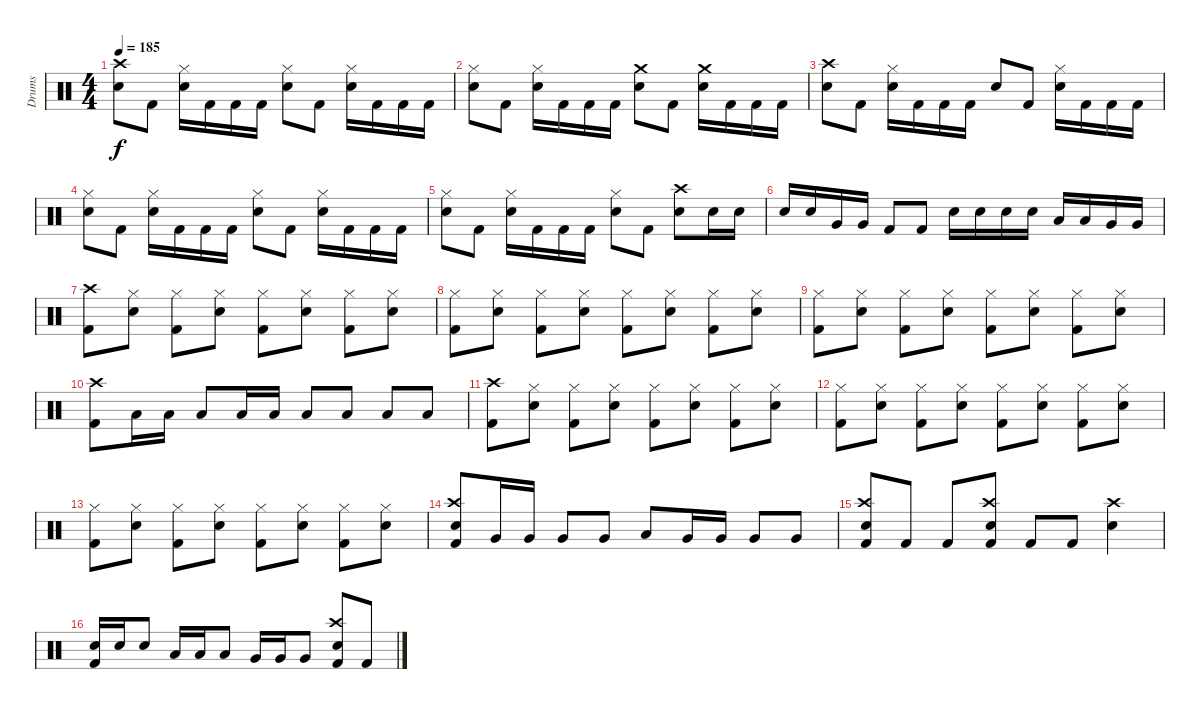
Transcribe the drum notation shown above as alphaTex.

\track ("Drums" "Drums") {instrument percussion}
\staff {score}
\articulation defaults
\ts (4 4)
\tempo 185
\clef neutral
\ks c
("Snare (hit) 2" "Crash high (hit)").8{dy f} "Kick (hit) 2".8 ("Snare (hit) 2" "Hi-Hat (closed)").16 "Kick (hit) 2".16 "Kick (hit) 2".16 "Kick (hit) 2".16 ("Snare (hit) 2" "Hi-Hat (closed)").8 "Kick (hit) 2".8 ("Snare (hit) 2" "Hi-Hat (closed)").16 "Kick (hit) 2".16 "Kick (hit) 2".16 "Kick (hit) 2".16 |
("Snare (hit) 2" "Hi-Hat (closed)").8 "Kick (hit) 2".8 ("Snare (hit) 2" "Hi-Hat (closed)").16 "Kick (hit) 2".16 "Kick (hit) 2".16 "Kick (hit) 2".16 ("Snare (hit) 2" "Crash medium (hit)").8 "Kick (hit) 2".8 ("Snare (hit) 2" "Crash medium (hit)").16 "Kick (hit) 2".16 "Kick (hit) 2".16 "Kick (hit) 2".16 |
("Snare (hit) 2" "Crash high (hit)").8 "Kick (hit) 2".8 ("Snare (hit) 2" "Hi-Hat (closed)").16 "Kick (hit) 2".16 "Kick (hit) 2".16 "Kick (hit) 2".16 "Snare (hit) 2".8 "Kick (hit) 2".8 ("Snare (hit) 2" "Hi-Hat (closed)").16 "Kick (hit) 2".16 "Kick (hit) 2".16 "Kick (hit) 2".16 |
("Snare (hit) 2" "Hi-Hat (closed)").8 "Kick (hit) 2".8 ("Snare (hit) 2" "Hi-Hat (closed)").16 "Kick (hit) 2".16 "Kick (hit) 2".16 "Kick (hit) 2".16 ("Snare (hit) 2" "Hi-Hat (closed)").8 "Kick (hit) 2".8 ("Snare (hit) 2" "Hi-Hat (closed)").16 "Kick (hit) 2".16 "Kick (hit) 2".16 "Kick (hit) 2".16 |
("Snare (hit) 2" "Hi-Hat (closed)").8 "Kick (hit) 2".8 ("Snare (hit) 2" "Hi-Hat (closed)").16 "Kick (hit) 2".16 "Kick (hit) 2".16 "Kick (hit) 2".16 ("Snare (hit) 2" "Hi-Hat (closed)").8 "Kick (hit) 2".8 ("Snare (hit) 2" "Crash high (hit)").8 "Snare (hit) 2".16 "Snare (hit) 2".16 |
"Snare (hit) 2".16 "Snare (hit) 2".16 "Very Low Tom (hit)".16 "Very Low Tom (hit)".16 "Kick (hit) 2".8 "Kick (hit) 2".8 "Snare (hit) 2".16 "Snare (hit) 2".16 "Snare (hit) 2".16 "Snare (hit) 2".16 "Low Tom (hit)".16 "Low Tom (hit)".16 "Very Low Tom (hit)".16 "Very Low Tom (hit)".16 |
("Kick (hit) 2" "Crash high (hit)").8 ("Snare (hit) 2" "Hi-Hat (closed)").8 ("Kick (hit) 2" "Hi-Hat (closed)").8 ("Snare (hit) 2" "Hi-Hat (closed)").8 ("Kick (hit) 2" "Hi-Hat (closed)").8 ("Snare (hit) 2" "Hi-Hat (closed)").8 ("Kick (hit) 2" "Hi-Hat (closed)").8 ("Snare (hit) 2" "Hi-Hat (closed)").8 |
("Kick (hit) 2" "Hi-Hat (closed)").8 ("Snare (hit) 2" "Hi-Hat (closed)").8 ("Kick (hit) 2" "Hi-Hat (closed)").8 ("Snare (hit) 2" "Hi-Hat (closed)").8 ("Kick (hit) 2" "Hi-Hat (closed)").8 ("Snare (hit) 2" "Hi-Hat (closed)").8 ("Kick (hit) 2" "Hi-Hat (closed)").8 ("Snare (hit) 2" "Hi-Hat (closed)").8 |
("Kick (hit) 2" "Hi-Hat (closed)").8 ("Snare (hit) 2" "Hi-Hat (closed)").8 ("Kick (hit) 2" "Hi-Hat (closed)").8 ("Snare (hit) 2" "Hi-Hat (closed)").8 ("Kick (hit) 2" "Hi-Hat (closed)").8 ("Snare (hit) 2" "Hi-Hat (closed)").8 ("Kick (hit) 2" "Hi-Hat (closed)").8 ("Snare (hit) 2" "Hi-Hat (closed)").8 |
("Kick (hit) 2" "Crash high (hit)").8 "Low Tom (hit)".16 "Low Tom (hit)".16 "Low Tom (hit)".8 "Low Tom (hit)".16 "Low Tom (hit)".16 "Low Tom (hit)".8 "Low Tom (hit)".8 "Low Tom (hit)".8 "Low Tom (hit)".8 |
("Kick (hit) 2" "Crash high (hit)").8 ("Snare (hit) 2" "Hi-Hat (closed)").8 ("Kick (hit) 2" "Hi-Hat (closed)").8 ("Snare (hit) 2" "Hi-Hat (closed)").8 ("Kick (hit) 2" "Hi-Hat (closed)").8 ("Snare (hit) 2" "Hi-Hat (closed)").8 ("Kick (hit) 2" "Hi-Hat (closed)").8 ("Snare (hit) 2" "Hi-Hat (closed)").8 |
("Kick (hit) 2" "Hi-Hat (closed)").8 ("Snare (hit) 2" "Hi-Hat (closed)").8 ("Kick (hit) 2" "Hi-Hat (closed)").8 ("Snare (hit) 2" "Hi-Hat (closed)").8 ("Kick (hit) 2" "Hi-Hat (closed)").8 ("Snare (hit) 2" "Hi-Hat (closed)").8 ("Kick (hit) 2" "Hi-Hat (closed)").8 ("Snare (hit) 2" "Hi-Hat (closed)").8 |
("Kick (hit) 2" "Hi-Hat (closed)").8 ("Snare (hit) 2" "Hi-Hat (closed)").8 ("Kick (hit) 2" "Hi-Hat (closed)").8 ("Snare (hit) 2" "Hi-Hat (closed)").8 ("Kick (hit) 2" "Hi-Hat (closed)").8 ("Snare (hit) 2" "Hi-Hat (closed)").8 ("Kick (hit) 2" "Hi-Hat (closed)").8 ("Snare (hit) 2" "Hi-Hat (closed)").8 |
("Kick (hit) 2" "Snare (hit) 2" "Crash high (hit)").8 "Very Low Tom (hit)".16 "Very Low Tom (hit)".16 "Very Low Tom (hit)".8 "Very Low Tom (hit)".8 "Low Tom (hit)".8 "Very Low Tom (hit)".16 "Very Low Tom (hit)".16 "Very Low Tom (hit)".8 "Very Low Tom (hit)".8 |
("Snare (hit) 2" "Kick (hit) 2" "Crash high (hit)").8 "Kick (hit) 2".8 "Kick (hit) 2".8 ("Snare (hit) 2" "Kick (hit) 2" "Crash high (hit)").8 "Kick (hit) 2".8 "Kick (hit) 2".8 ("Snare (hit) 2" "Crash high (hit)").4 |
("Kick (hit) 2" "Snare (hit) 2").16 "Snare (hit) 2".16 "Snare (hit) 2".8 "Low Tom (hit)".16 "Low Tom (hit)".16 "Low Tom (hit)".8 "Very Low Tom (hit)".16 "Very Low Tom (hit)".16 "Very Low Tom (hit)".8 ("Kick (hit) 2" "Snare (hit) 2" "Crash high (hit)").8 "Kick (hit) 2".8
